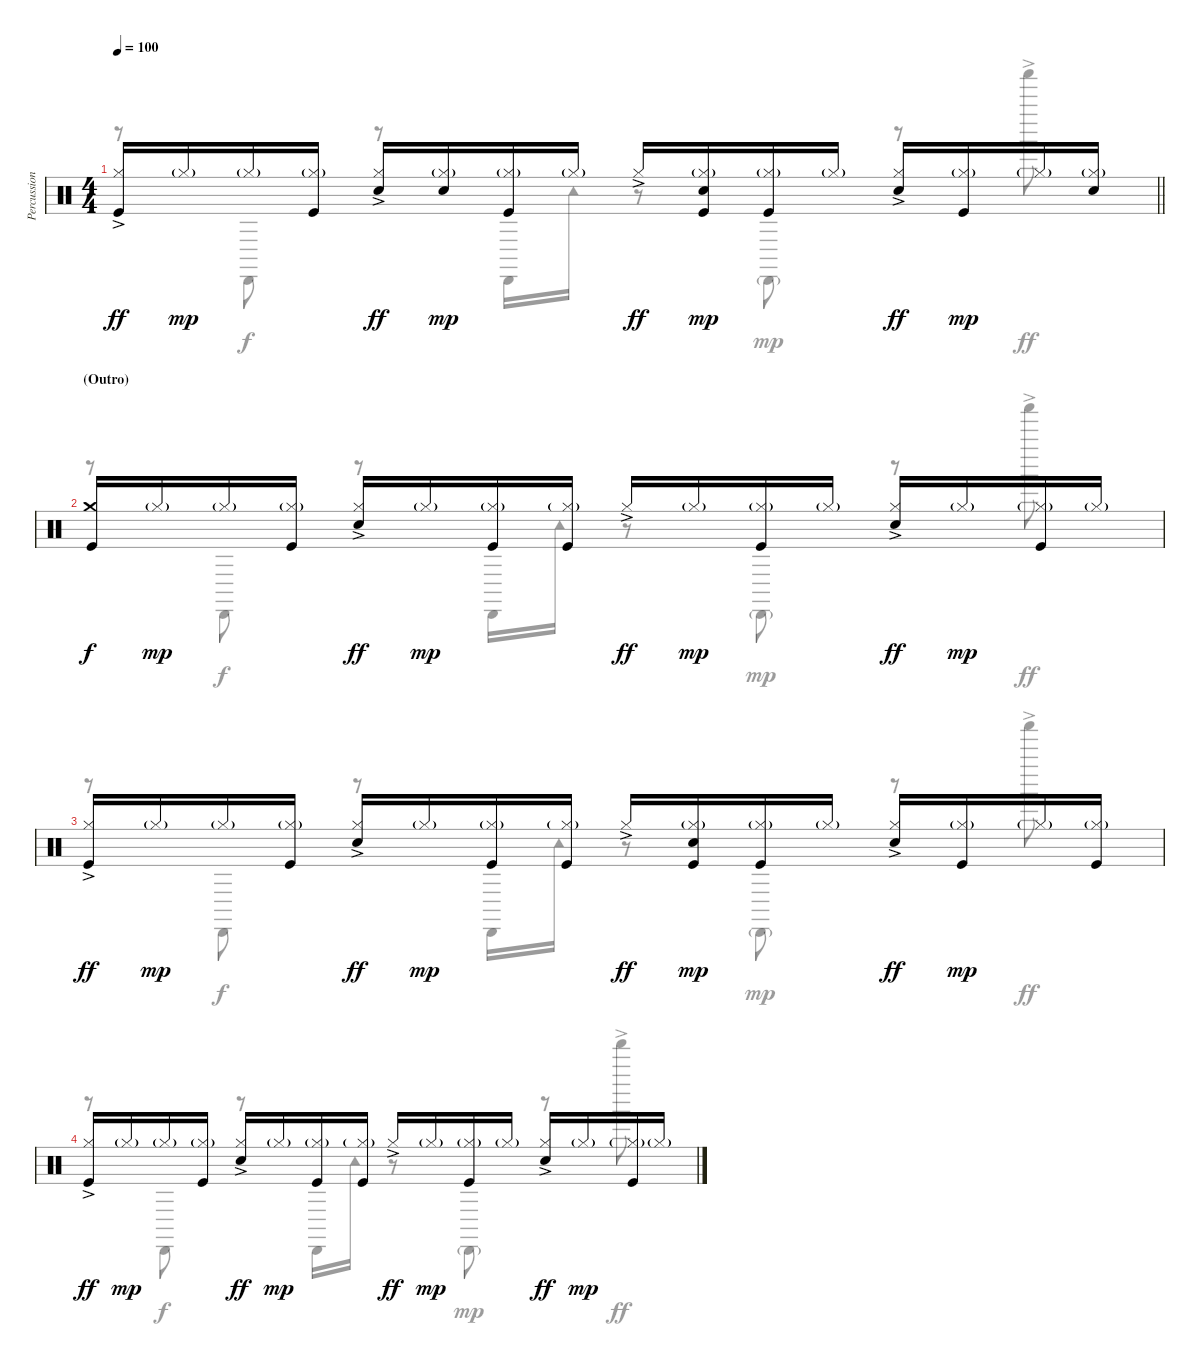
\track ("Percussions" "Percussion") {instrument percussion}
\staff {score}
\articulation defaults
\voice
\ts (4 4)
\tempo 100
\clef neutral
\barLineRight lightlight
\ks c
("Kick (hit)" "Hi-Hat (closed)"{ac}).16{dy ff} "Hi-Hat (closed)"{g}.16{dy mp} "Hi-Hat (closed)"{g}.16 ("Kick (hit)" "Hi-Hat (closed)"{g}).16 ("Electric Snare (hit)" "Hi-Hat (closed)"{ac}).16{dy ff} ("Electric Snare (hit)" "Hi-Hat (closed)"{g}).16{dy mp} ("Kick (hit)" "Hi-Hat (closed)"{g}).16 "Hi-Hat (closed)"{g}.16 "Hi-Hat (closed)"{ac}.16{dy ff} ("Kick (hit)" "Electric Snare (hit)" "Hi-Hat (closed)"{g}).16{dy mp} ("Kick (hit)" "Hi-Hat (closed)"{g}).16 "Hi-Hat (closed)"{g}.16 ("Snare (hit) 2" "Hi-Hat (closed)"{ac}).16{dy ff} ("Kick (hit)" "Hi-Hat (closed)"{g}).16{dy mp} "Hi-Hat (closed)"{g}.16 ("Snare (hit) 2" "Hi-Hat (closed)"{g}).16 |
\section ("" "(Outro)")
("Kick (hit)" "Crash medium (hit)").16{dy f} "Hi-Hat (closed)"{g}.16{dy mp} "Hi-Hat (closed)"{g}.16 ("Kick (hit)" "Hi-Hat (closed)"{g}).16 ("Electric Snare (hit)" "Hi-Hat (closed)"{ac}).16{dy ff} "Hi-Hat (closed)"{g}.16{dy mp} ("Kick (hit)" "Hi-Hat (closed)"{g}).16 ("Kick (hit)" "Hi-Hat (closed)"{g}).16 "Hi-Hat (closed)"{ac}.16{dy ff} "Hi-Hat (closed)"{g}.16{dy mp} ("Kick (hit)" "Hi-Hat (closed)"{g}).16 "Hi-Hat (closed)"{g}.16 ("Snare (hit) 2" "Hi-Hat (closed)"{ac}).16{dy ff} "Hi-Hat (closed)"{g}.16{dy mp} ("Kick (hit)" "Hi-Hat (closed)"{g}).16 "Hi-Hat (closed)"{g}.16 |
("Kick (hit)" "Hi-Hat (closed)"{ac}).16{dy ff} "Hi-Hat (closed)"{g}.16{dy mp} "Hi-Hat (closed)"{g}.16 ("Kick (hit)" "Hi-Hat (closed)"{g}).16 ("Electric Snare (hit)" "Hi-Hat (closed)"{ac}).16{dy ff} "Hi-Hat (closed)"{g}.16{dy mp} ("Kick (hit)" "Hi-Hat (closed)"{g}).16 ("Kick (hit)" "Hi-Hat (closed)"{g}).16 "Hi-Hat (closed)"{ac}.16{dy ff} ("Kick (hit)" "Electric Snare (hit)" "Hi-Hat (closed)"{g}).16{dy mp} ("Kick (hit)" "Hi-Hat (closed)"{g}).16 "Hi-Hat (closed)"{g}.16 ("Snare (hit) 2" "Hi-Hat (closed)"{ac}).16{dy ff} ("Kick (hit)" "Hi-Hat (closed)"{g}).16{dy mp} "Hi-Hat (closed)"{g}.16 ("Kick (hit)" "Hi-Hat (closed)"{g}).16 |
("Kick (hit)" "Hi-Hat (closed)"{ac}).16{dy ff} "Hi-Hat (closed)"{g}.16{dy mp} "Hi-Hat (closed)"{g}.16 ("Kick (hit)" "Hi-Hat (closed)"{g}).16 ("Electric Snare (hit)" "Hi-Hat (closed)"{ac}).16{dy ff} "Hi-Hat (closed)"{g}.16{dy mp} ("Kick (hit)" "Hi-Hat (closed)"{g}).16 ("Kick (hit)" "Hi-Hat (closed)"{g}).16 "Hi-Hat (closed)"{ac}.16{dy ff} "Hi-Hat (closed)"{g}.16{dy mp} ("Kick (hit)" "Hi-Hat (closed)"{g}).16 "Hi-Hat (closed)"{g}.16 ("Snare (hit) 2" "Hi-Hat (closed)"{ac}).16{dy ff} "Hi-Hat (closed)"{g}.16{dy mp} ("Kick (hit)" "Hi-Hat (closed)"{g}).16 "Hi-Hat (closed)"{g}.16
\voice
\clef neutral
\ottava regular
\simile none
\barLineRight lightlight
\ks c
r.8{dy ff} "Cabasa (hit)".8{dy f} r.8 "Cabasa (hit)".16 "Tambourine (hit)".16 r.8 "Cabasa (hit)"{g}.8{dy mp} r.8 "Shaker (hit)"{ac}.8{dy ff} |
r.8 "Cabasa (hit)".8{dy f} r.8 "Cabasa (hit)".16 "Tambourine (hit)".16 r.8 "Cabasa (hit)"{g}.8{dy mp} r.8 "Shaker (hit)"{ac}.8{dy ff} |
r.8 "Cabasa (hit)".8{dy f} r.8 "Cabasa (hit)".16 "Tambourine (hit)".16 r.8 "Cabasa (hit)"{g}.8{dy mp} r.8 "Shaker (hit)"{ac}.8{dy ff} |
r.8 "Cabasa (hit)".8{dy f} r.8 "Cabasa (hit)".16 "Tambourine (hit)".16 r.8 "Cabasa (hit)"{g}.8{dy mp} r.8 "Shaker (hit)"{ac}.8{dy ff}
